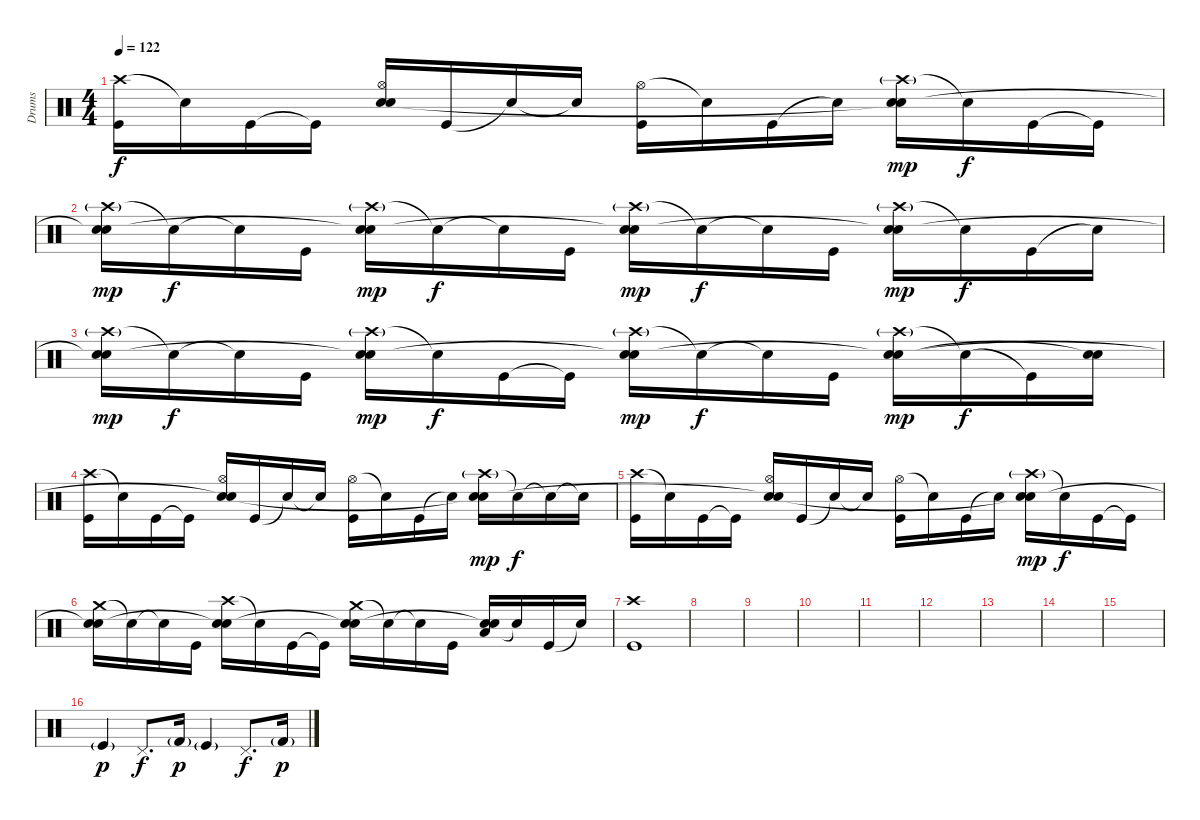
\track ("Drums" "Drums") {instrument percussion}
\staff {score}
\articulation defaults
\ts (4 4)
\tempo 122
\clef neutral
\ks c
("Crash high (hit)" "Kick (hit)").16{dy f} "Snare (hit)"{t}.16 "Kick (hit)".16 "Kick (hit)"{t}.16 ("Hi-Hat (open)" "Electric Snare (hit)" "Snare (hit)"{t}).16 "Kick (hit)".16 "Snare (hit)"{t}.16 "Snare (hit)"{t}.16 ("Hi-Hat (open)" "Kick (hit)").16 "Snare (hit)"{t}.16 "Kick (hit)".16 "Snare (hit)"{t}.16 ("Crash high (hit)"{g} "Electric Snare (hit)" "Snare (hit)"{t}).16{dy mp} "Snare (hit)"{t}.16{dy f} "Kick (hit)".16 "Kick (hit)"{t}.16 |
("Crash high (hit)"{g} "Electric Snare (hit)" "Snare (hit)"{t}).16{dy mp} "Snare (hit)"{t}.16{dy f} "Snare (hit)"{t}.16 "Kick (hit)".16 ("Crash high (hit)"{g} "Electric Snare (hit)" "Snare (hit)"{t}).16{dy mp} "Snare (hit)"{t}.16{dy f} "Snare (hit)"{t}.16 "Kick (hit)".16 ("Crash high (hit)"{g} "Electric Snare (hit)" "Snare (hit)"{t}).16{dy mp} "Snare (hit)"{t}.16{dy f} "Snare (hit)"{t}.16 "Kick (hit)".16 ("Crash high (hit)"{g} "Electric Snare (hit)" "Snare (hit)"{t}).16{dy mp} "Snare (hit)"{t}.16{dy f} "Kick (hit)".16 "Snare (hit)"{t}.16 |
("Crash high (hit)"{g} "Electric Snare (hit)" "Snare (hit)"{t}).16{dy mp} "Snare (hit)"{t}.16{dy f} "Snare (hit)"{t}.16 "Kick (hit)".16 ("Crash high (hit)"{g} "Electric Snare (hit)" "Snare (hit)"{t}).16{dy mp} "Snare (hit)"{t}.16{dy f} "Kick (hit)".16 "Kick (hit)"{t}.16 ("Crash high (hit)"{g} "Electric Snare (hit)" "Snare (hit)"{t}).16{dy mp} "Snare (hit)"{t}.16{dy f} "Snare (hit)"{t}.16 "Kick (hit)".16 ("Crash high (hit)"{g} "Electric Snare (hit)" "Snare (hit)"{t}).16{dy mp} "Snare (hit)"{t}.16{dy f} "Kick (hit)"{t}.16 ("Electric Snare (hit)" "Snare (hit)"{t}).16 |
("Crash high (hit)" "Kick (hit)").16 "Snare (hit)"{t}.16 "Kick (hit)".16 "Kick (hit)"{t}.16 ("Hi-Hat (open)" "Electric Snare (hit)" "Snare (hit)"{t}).16 "Kick (hit)".16 "Snare (hit)"{t}.16 "Snare (hit)"{t}.16 ("Hi-Hat (open)" "Kick (hit)").16 "Snare (hit)"{t}.16 "Kick (hit)".16 "Snare (hit)"{t}.16 ("Crash high (hit)"{g} "Electric Snare (hit)" "Snare (hit)"{t}).16{dy mp} "Snare (hit)"{t}.16{dy f} "Snare (hit)"{t}.16 "Snare (hit)"{t}.16 |
("Crash high (hit)" "Kick (hit)").16 "Snare (hit)"{t}.16 "Kick (hit)".16 "Kick (hit)"{t}.16 ("Hi-Hat (open)" "Electric Snare (hit)" "Snare (hit)"{t}).16 "Kick (hit)".16 "Snare (hit)"{t}.16 "Snare (hit)"{t}.16 ("Hi-Hat (open)" "Kick (hit)").16 "Snare (hit)"{t}.16 "Kick (hit)".16 "Snare (hit)"{t}.16 ("Crash high (hit)"{g} "Electric Snare (hit)" "Snare (hit)"{t}).16{dy mp} "Snare (hit)"{t}.16{dy f} "Kick (hit)".16 "Kick (hit)"{t}.16 |
("Crash medium (hit)" "Electric Snare (hit)" "Snare (hit)"{t}).16 "Snare (hit)"{t}.16 "Snare (hit)"{t}.16 "Kick (hit)".16 ("Crash high (hit)" "Electric Snare (hit)" "Snare (hit)"{t}).16 "Snare (hit)"{t}.16 "Kick (hit)".16 "Kick (hit)"{t}.16 ("Crash medium (hit)" "Electric Snare (hit)" "Snare (hit)"{t}).16 "Snare (hit)"{t}.16 "Snare (hit)"{t}.16 "Kick (hit)".16 ("Low Tom (hit)" "Electric Snare (hit)" "Snare (hit)"{t}).16 "Snare (hit)"{t}.16 "Kick (hit)".16 "Snare (hit)"{t}.16 |
("Crash high (hit)" "Kick (hit)").1 |
|
|
|
|
|
|
|
|
"Kick (hit)"{g}.4{dy p} "Pedal Hi-Hat (hit)".8{d dy f} "Kick (hit) 2"{g}.16{dy p} "Kick (hit)"{g}.4 "Pedal Hi-Hat (hit)".8{d dy f} "Kick (hit) 2"{g}.16{dy p}
